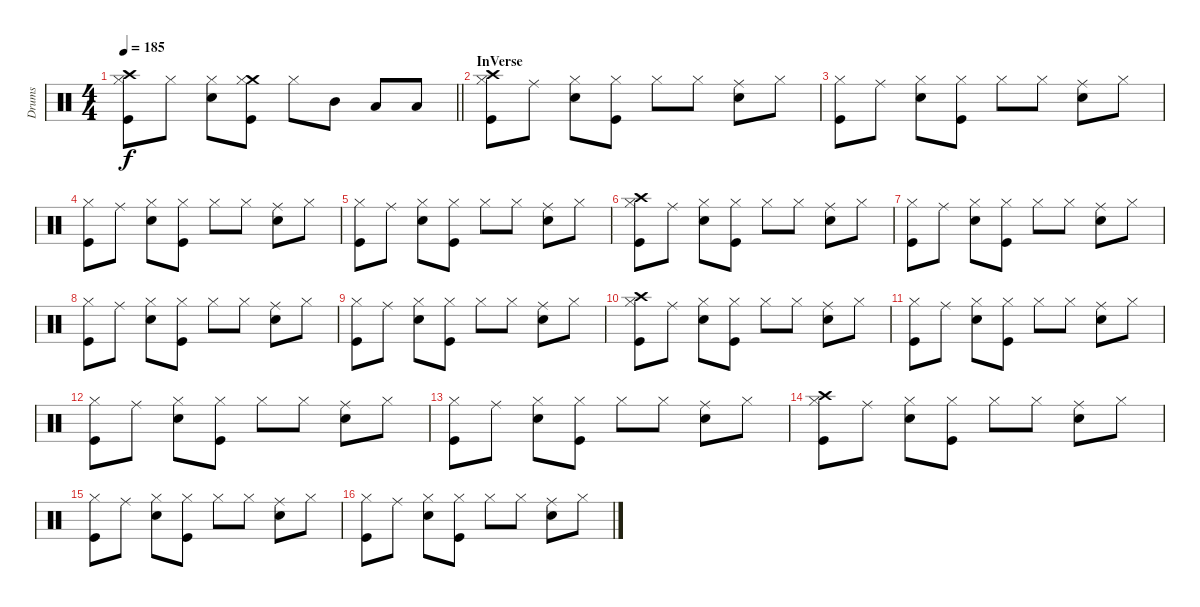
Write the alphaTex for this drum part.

\track ("Drums" "Drums") {instrument percussion}
\staff {score}
\articulation defaults
\ts (4 4)
\tempo 185
\clef neutral
\barLineRight lightlight
\ks c
("Kick (hit)" "Crash high (hit)" "Hi-Hat (closed)").8{dy f} "Hi-Hat (closed)".8 ("Snare (hit) 2" "Hi-Hat (closed)").8 ("Kick (hit)" "Crash medium (hit)" "Hi-Hat (closed)").8 "Hi-Hat (closed)".8 "Mid Tom (hit)".8 "Low Tom (hit)".8 "Low Floor Tom (hit)".8 |
\section ("" "InVerse")
("Kick (hit)" "Crash high (hit)" "Hi-Hat (closed)").8 "Ride (middle)".8 ("Snare (hit) 2" "Hi-Hat (closed)").8 ("Kick (hit)" "Hi-Hat (closed)").8 "Hi-Hat (closed)".8 "Hi-Hat (closed)".8 ("Snare (hit) 2" "Ride (middle)").8 "Hi-Hat (closed)".8 |
("Kick (hit)" "Hi-Hat (closed)").8 "Ride (middle)".8 ("Snare (hit) 2" "Hi-Hat (closed)").8 ("Kick (hit)" "Hi-Hat (closed)").8 "Hi-Hat (closed)".8 "Hi-Hat (closed)".8 ("Snare (hit) 2" "Ride (middle)").8 "Hi-Hat (closed)".8 |
("Kick (hit)" "Hi-Hat (closed)").8 "Ride (middle)".8 ("Snare (hit) 2" "Hi-Hat (closed)").8 ("Kick (hit)" "Hi-Hat (closed)").8 "Hi-Hat (closed)".8 "Hi-Hat (closed)".8 ("Snare (hit) 2" "Ride (middle)").8 "Hi-Hat (closed)".8 |
("Kick (hit)" "Hi-Hat (closed)").8 "Ride (middle)".8 ("Snare (hit) 2" "Hi-Hat (closed)").8 ("Kick (hit)" "Hi-Hat (closed)").8 "Hi-Hat (closed)".8 "Hi-Hat (closed)".8 ("Snare (hit) 2" "Ride (middle)").8 "Hi-Hat (closed)".8 |
("Kick (hit)" "Crash high (hit)" "Hi-Hat (closed)").8 "Ride (middle)".8 ("Snare (hit) 2" "Hi-Hat (closed)").8 ("Kick (hit)" "Hi-Hat (closed)").8 "Hi-Hat (closed)".8 "Hi-Hat (closed)".8 ("Snare (hit) 2" "Ride (middle)").8 "Hi-Hat (closed)".8 |
("Kick (hit)" "Hi-Hat (closed)").8 "Ride (middle)".8 ("Snare (hit) 2" "Hi-Hat (closed)").8 ("Kick (hit)" "Hi-Hat (closed)").8 "Hi-Hat (closed)".8 "Hi-Hat (closed)".8 ("Snare (hit) 2" "Ride (middle)").8 "Hi-Hat (closed)".8 |
("Kick (hit)" "Hi-Hat (closed)").8 "Ride (middle)".8 ("Snare (hit) 2" "Hi-Hat (closed)").8 ("Kick (hit)" "Hi-Hat (closed)").8 "Hi-Hat (closed)".8 "Hi-Hat (closed)".8 ("Snare (hit) 2" "Ride (middle)").8 "Hi-Hat (closed)".8 |
("Kick (hit)" "Hi-Hat (closed)").8 "Ride (middle)".8 ("Snare (hit) 2" "Hi-Hat (closed)").8 ("Kick (hit)" "Hi-Hat (closed)").8 "Hi-Hat (closed)".8 "Hi-Hat (closed)".8 ("Snare (hit) 2" "Ride (middle)").8 "Hi-Hat (closed)".8 |
("Kick (hit)" "Crash high (hit)" "Hi-Hat (closed)").8 "Ride (middle)".8 ("Snare (hit) 2" "Hi-Hat (closed)").8 ("Kick (hit)" "Hi-Hat (closed)").8 "Hi-Hat (closed)".8 "Hi-Hat (closed)".8 ("Snare (hit) 2" "Ride (middle)").8 "Hi-Hat (closed)".8 |
("Kick (hit)" "Hi-Hat (closed)").8 "Ride (middle)".8 ("Snare (hit) 2" "Hi-Hat (closed)").8 ("Kick (hit)" "Hi-Hat (closed)").8 "Hi-Hat (closed)".8 "Hi-Hat (closed)".8 ("Snare (hit) 2" "Ride (middle)").8 "Hi-Hat (closed)".8 |
("Kick (hit)" "Hi-Hat (closed)").8 "Ride (middle)".8 ("Snare (hit) 2" "Hi-Hat (closed)").8 ("Kick (hit)" "Hi-Hat (closed)").8 "Hi-Hat (closed)".8 "Hi-Hat (closed)".8 ("Snare (hit) 2" "Ride (middle)").8 "Hi-Hat (closed)".8 |
("Kick (hit)" "Hi-Hat (closed)").8 "Ride (middle)".8 ("Snare (hit) 2" "Hi-Hat (closed)").8 ("Kick (hit)" "Hi-Hat (closed)").8 "Hi-Hat (closed)".8 "Hi-Hat (closed)".8 ("Snare (hit) 2" "Ride (middle)").8 "Hi-Hat (closed)".8 |
("Kick (hit)" "Crash high (hit)" "Hi-Hat (closed)").8 "Ride (middle)".8 ("Snare (hit) 2" "Hi-Hat (closed)").8 ("Kick (hit)" "Hi-Hat (closed)").8 "Hi-Hat (closed)".8 "Hi-Hat (closed)".8 ("Snare (hit) 2" "Ride (middle)").8 "Hi-Hat (closed)".8 |
("Kick (hit)" "Hi-Hat (closed)").8 "Ride (middle)".8 ("Snare (hit) 2" "Hi-Hat (closed)").8 ("Kick (hit)" "Hi-Hat (closed)").8 "Hi-Hat (closed)".8 "Hi-Hat (closed)".8 ("Snare (hit) 2" "Ride (middle)").8 "Hi-Hat (closed)".8 |
("Kick (hit)" "Hi-Hat (closed)").8 "Ride (middle)".8 ("Snare (hit) 2" "Hi-Hat (closed)").8 ("Kick (hit)" "Hi-Hat (closed)").8 "Hi-Hat (closed)".8 "Hi-Hat (closed)".8 ("Snare (hit) 2" "Ride (middle)").8 "Hi-Hat (closed)".8
